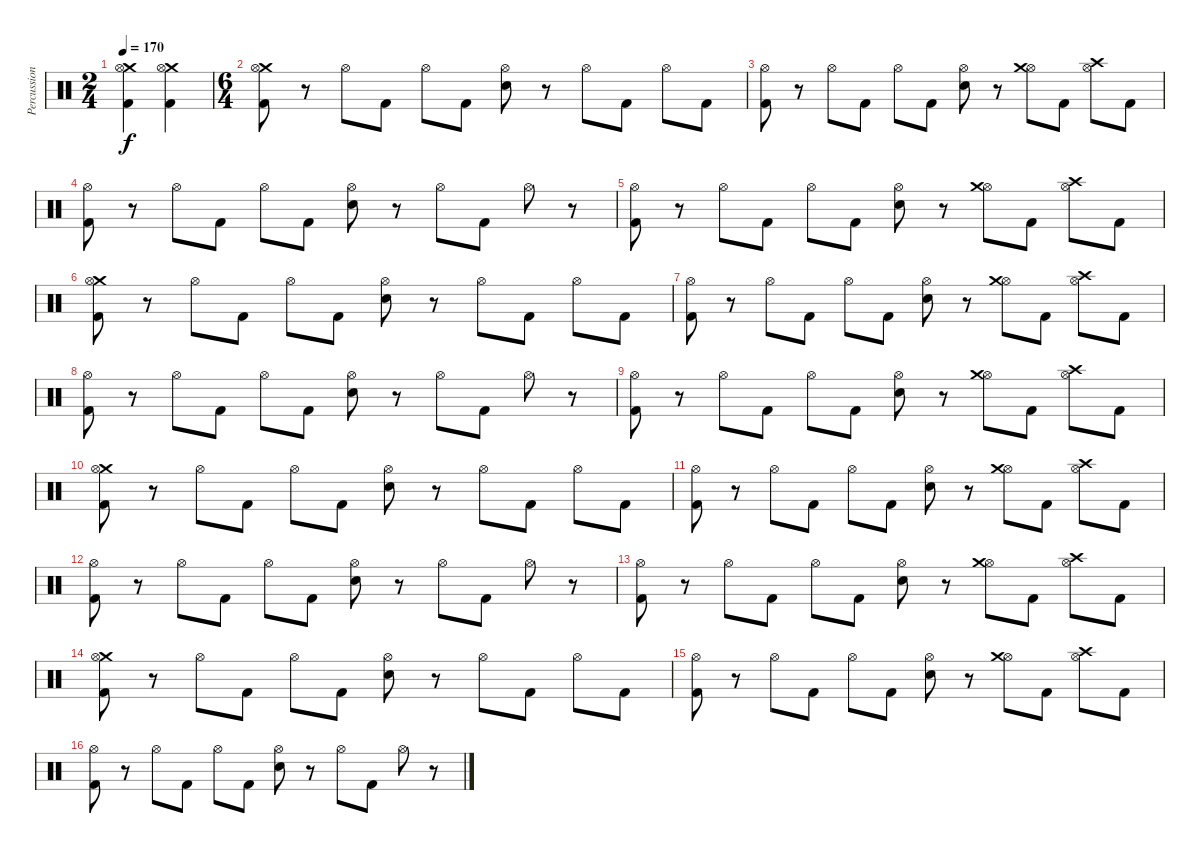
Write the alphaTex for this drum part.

\track ("Percussion" "Percussion") {instrument percussion}
\staff {score}
\articulation defaults
\ts (2 4)
\tempo 170
\clef neutral
\ks c
("Crash medium (hit)" "Hi-Hat (open)" "Kick (hit) 2").4{dy f} ("Crash medium (hit)" "Hi-Hat (open)" "Kick (hit) 2").4 |
\ts (6 4)
("Crash medium (hit)" "Hi-Hat (open)" "Kick (hit) 2").8 r.8 "Hi-Hat (open)".8 "Kick (hit) 2".8 "Hi-Hat (open)".8 "Kick (hit) 2".8 ("Hi-Hat (open)" "Electric Snare (hit)").8 r.8 "Hi-Hat (open)".8 "Kick (hit) 2".8 "Hi-Hat (open)".8 "Kick (hit) 2".8 |
("Hi-Hat (open)" "Kick (hit) 2").8 r.8 "Hi-Hat (open)".8 "Kick (hit) 2".8 "Hi-Hat (open)".8 "Kick (hit) 2".8 ("Hi-Hat (open)" "Electric Snare (hit)").8 r.8 ("Hi-Hat (open)" "Crash medium (hit)").8 "Kick (hit) 2".8 ("Hi-Hat (open)" "Crash high (hit)").8 "Kick (hit) 2".8 |
("Hi-Hat (open)" "Kick (hit) 2").8 r.8 "Hi-Hat (open)".8 "Kick (hit) 2".8 "Hi-Hat (open)".8 "Kick (hit) 2".8 ("Hi-Hat (open)" "Electric Snare (hit)").8 r.8 "Hi-Hat (open)".8 "Kick (hit) 2".8 "Hi-Hat (open)".8 r.8 |
("Hi-Hat (open)" "Kick (hit) 2").8 r.8 "Hi-Hat (open)".8 "Kick (hit) 2".8 "Hi-Hat (open)".8 "Kick (hit) 2".8 ("Hi-Hat (open)" "Electric Snare (hit)").8 r.8 ("Hi-Hat (open)" "Crash medium (hit)").8 "Kick (hit) 2".8 ("Hi-Hat (open)" "Crash high (hit)").8 "Kick (hit) 2".8 |
("Crash medium (hit)" "Hi-Hat (open)" "Kick (hit) 2").8 r.8 "Hi-Hat (open)".8 "Kick (hit) 2".8 "Hi-Hat (open)".8 "Kick (hit) 2".8 ("Hi-Hat (open)" "Electric Snare (hit)").8 r.8 "Hi-Hat (open)".8 "Kick (hit) 2".8 "Hi-Hat (open)".8 "Kick (hit) 2".8 |
("Hi-Hat (open)" "Kick (hit) 2").8 r.8 "Hi-Hat (open)".8 "Kick (hit) 2".8 "Hi-Hat (open)".8 "Kick (hit) 2".8 ("Hi-Hat (open)" "Electric Snare (hit)").8 r.8 ("Hi-Hat (open)" "Crash medium (hit)").8 "Kick (hit) 2".8 ("Hi-Hat (open)" "Crash high (hit)").8 "Kick (hit) 2".8 |
("Hi-Hat (open)" "Kick (hit) 2").8 r.8 "Hi-Hat (open)".8 "Kick (hit) 2".8 "Hi-Hat (open)".8 "Kick (hit) 2".8 ("Hi-Hat (open)" "Electric Snare (hit)").8 r.8 "Hi-Hat (open)".8 "Kick (hit) 2".8 "Hi-Hat (open)".8 r.8 |
("Hi-Hat (open)" "Kick (hit) 2").8 r.8 "Hi-Hat (open)".8 "Kick (hit) 2".8 "Hi-Hat (open)".8 "Kick (hit) 2".8 ("Hi-Hat (open)" "Electric Snare (hit)").8 r.8 ("Hi-Hat (open)" "Crash medium (hit)").8 "Kick (hit) 2".8 ("Hi-Hat (open)" "Crash high (hit)").8 "Kick (hit) 2".8 |
("Crash medium (hit)" "Hi-Hat (open)" "Kick (hit) 2").8 r.8 "Hi-Hat (open)".8 "Kick (hit) 2".8 "Hi-Hat (open)".8 "Kick (hit) 2".8 ("Hi-Hat (open)" "Electric Snare (hit)").8 r.8 "Hi-Hat (open)".8 "Kick (hit) 2".8 "Hi-Hat (open)".8 "Kick (hit) 2".8 |
("Hi-Hat (open)" "Kick (hit) 2").8 r.8 "Hi-Hat (open)".8 "Kick (hit) 2".8 "Hi-Hat (open)".8 "Kick (hit) 2".8 ("Hi-Hat (open)" "Electric Snare (hit)").8 r.8 ("Hi-Hat (open)" "Crash medium (hit)").8 "Kick (hit) 2".8 ("Hi-Hat (open)" "Crash high (hit)").8 "Kick (hit) 2".8 |
("Hi-Hat (open)" "Kick (hit) 2").8 r.8 "Hi-Hat (open)".8 "Kick (hit) 2".8 "Hi-Hat (open)".8 "Kick (hit) 2".8 ("Hi-Hat (open)" "Electric Snare (hit)").8 r.8 "Hi-Hat (open)".8 "Kick (hit) 2".8 "Hi-Hat (open)".8 r.8 |
("Hi-Hat (open)" "Kick (hit) 2").8 r.8 "Hi-Hat (open)".8 "Kick (hit) 2".8 "Hi-Hat (open)".8 "Kick (hit) 2".8 ("Hi-Hat (open)" "Electric Snare (hit)").8 r.8 ("Hi-Hat (open)" "Crash medium (hit)").8 "Kick (hit) 2".8 ("Hi-Hat (open)" "Crash high (hit)").8 "Kick (hit) 2".8 |
("Crash medium (hit)" "Hi-Hat (open)" "Kick (hit) 2").8 r.8 "Hi-Hat (open)".8 "Kick (hit) 2".8 "Hi-Hat (open)".8 "Kick (hit) 2".8 ("Hi-Hat (open)" "Electric Snare (hit)").8 r.8 "Hi-Hat (open)".8 "Kick (hit) 2".8 "Hi-Hat (open)".8 "Kick (hit) 2".8 |
("Hi-Hat (open)" "Kick (hit) 2").8 r.8 "Hi-Hat (open)".8 "Kick (hit) 2".8 "Hi-Hat (open)".8 "Kick (hit) 2".8 ("Hi-Hat (open)" "Electric Snare (hit)").8 r.8 ("Hi-Hat (open)" "Crash medium (hit)").8 "Kick (hit) 2".8 ("Hi-Hat (open)" "Crash high (hit)").8 "Kick (hit) 2".8 |
("Hi-Hat (open)" "Kick (hit) 2").8 r.8 "Hi-Hat (open)".8 "Kick (hit) 2".8 "Hi-Hat (open)".8 "Kick (hit) 2".8 ("Hi-Hat (open)" "Electric Snare (hit)").8 r.8 "Hi-Hat (open)".8 "Kick (hit) 2".8 "Hi-Hat (open)".8 r.8
